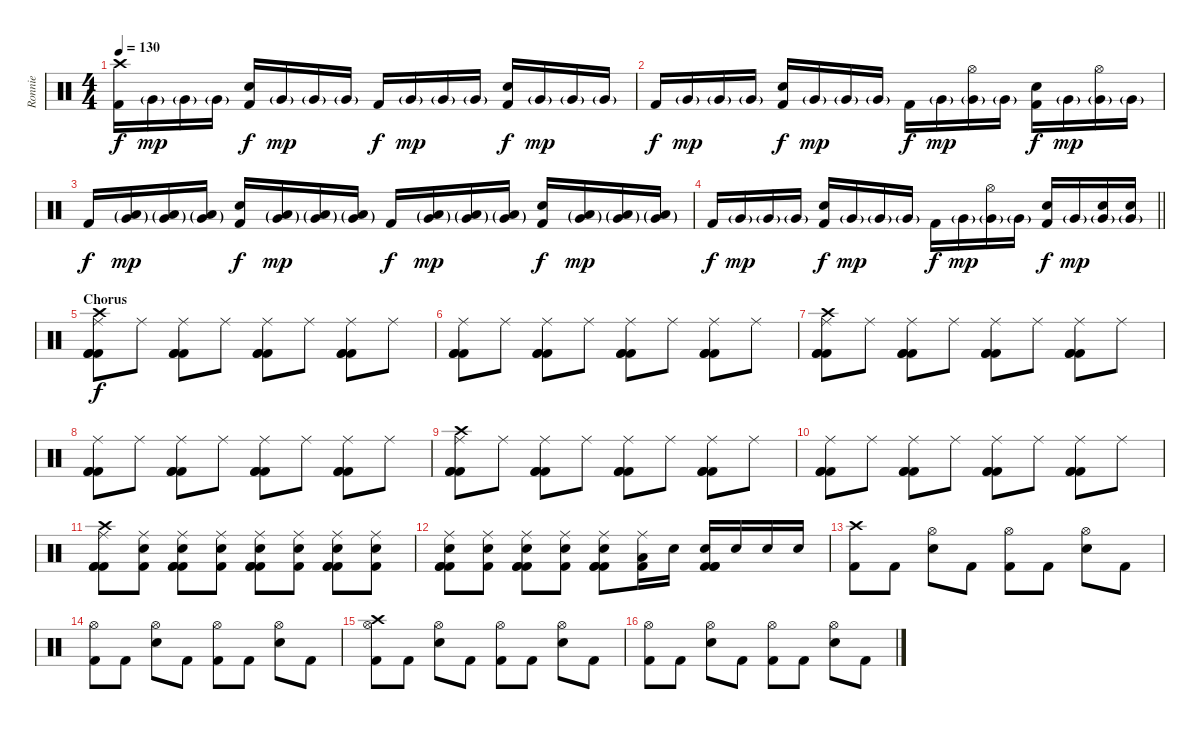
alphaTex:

\track ("Ronnie" "Ronnie") {instrument percussion}
\staff {score}
\articulation defaults
\ts (4 4)
\tempo 130
\clef neutral
\ks c
("Kick (hit) 2" "Crash high (hit)").16{dy f} "Very Low Tom (hit)"{g}.16{dy mp} "Very Low Tom (hit)"{g}.16 "Very Low Tom (hit)"{g}.16 ("Electric Snare (hit)" "Kick (hit) 2").16{dy f} "Very Low Tom (hit)"{g}.16{dy mp} "Very Low Tom (hit)"{g}.16 "Very Low Tom (hit)"{g}.16 "Kick (hit) 2".16{dy f} "Very Low Tom (hit)"{g}.16{dy mp} "Very Low Tom (hit)"{g}.16 "Very Low Tom (hit)"{g}.16 ("Electric Snare (hit)" "Kick (hit) 2").16{dy f} "Very Low Tom (hit)"{g}.16{dy mp} "Very Low Tom (hit)"{g}.16 "Very Low Tom (hit)"{g}.16 |
"Kick (hit) 2".16{dy f} "Very Low Tom (hit)"{g}.16{dy mp} "Very Low Tom (hit)"{g}.16 "Very Low Tom (hit)"{g}.16 ("Electric Snare (hit)" "Kick (hit) 2").16{dy f} "Very Low Tom (hit)"{g}.16{dy mp} "Very Low Tom (hit)"{g}.16 "Very Low Tom (hit)"{g}.16 "Kick (hit) 2".16{dy f} "Very Low Tom (hit)"{g}.16{dy mp} ("Very Low Tom (hit)"{g} "Hi-Hat (open)").16 "Very Low Tom (hit)"{g}.16 ("Electric Snare (hit)" "Kick (hit) 2").16{dy f} "Very Low Tom (hit)"{g}.16{dy mp} ("Very Low Tom (hit)"{g} "Hi-Hat (open)").16 "Very Low Tom (hit)"{g}.16 |
"Kick (hit) 2".16{dy f} ("Very Low Tom (hit)"{g} "Low Tom (hit)"{g}).16{dy mp} ("Very Low Tom (hit)"{g} "Low Tom (hit)"{g}).16 ("Very Low Tom (hit)"{g} "Low Tom (hit)"{g}).16 ("Electric Snare (hit)" "Kick (hit) 2").16{dy f} ("Very Low Tom (hit)"{g} "Low Tom (hit)"{g}).16{dy mp} ("Very Low Tom (hit)"{g} "Low Tom (hit)"{g}).16 ("Very Low Tom (hit)"{g} "Low Tom (hit)"{g}).16 "Kick (hit) 2".16{dy f} ("Very Low Tom (hit)"{g} "Low Tom (hit)"{g}).16{dy mp} ("Very Low Tom (hit)"{g} "Low Tom (hit)"{g}).16 ("Very Low Tom (hit)"{g} "Low Tom (hit)"{g}).16 ("Electric Snare (hit)" "Kick (hit) 2").16{dy f} ("Very Low Tom (hit)"{g} "Low Tom (hit)"{g}).16{dy mp} ("Very Low Tom (hit)"{g} "Low Tom (hit)"{g}).16 ("Very Low Tom (hit)"{g} "Low Tom (hit)"{g}).16 |
\barLineRight lightlight "Kick (hit) 2".16{dy f} "Very Low Tom (hit)"{g}.16{dy mp} "Very Low Tom (hit)"{g}.16 "Very Low Tom (hit)"{g}.16
("Electric Snare (hit)" "Kick (hit) 2").16{dy f} "Very Low Tom (hit)"{g}.16{dy mp} "Very Low Tom (hit)"{g}.16 "Very Low Tom (hit)"{g}.16 "Kick (hit) 2".16{dy f} "Very Low Tom (hit)"{g}.16{dy mp} ("Very Low Tom (hit)"{g} "Hi-Hat (open)").16 "Very Low Tom (hit)"{g}.16 ("Electric Snare (hit)" "Kick (hit) 2").16{dy f} "Very Low Tom (hit)"{g}.16{dy mp} ("Very Low Tom (hit)"{g} "Electric Snare (hit)").16 ("Very Low Tom (hit)"{g} "Electric Snare (hit)").16 |
\section ("" "Chorus")
("Crash high (hit)" "Ride (middle)" "Kick (hit) 2" "Kick (hit) 2" "Kick (hit) 2").8{dy f} "Ride (middle)".8 ("Ride (middle)" "Kick (hit) 2" "Kick (hit) 2" "Kick (hit) 2").8 "Ride (middle)".8 ("Ride (middle)" "Kick (hit) 2" "Kick (hit) 2" "Kick (hit) 2").8 "Ride (middle)".8 ("Ride (middle)" "Kick (hit) 2" "Kick (hit) 2" "Kick (hit) 2").8 "Ride (middle)".8 |
("Ride (middle)" "Kick (hit) 2" "Kick (hit) 2" "Kick (hit) 2").8 "Ride (middle)".8 ("Ride (middle)" "Kick (hit) 2" "Kick (hit) 2" "Kick (hit) 2").8 "Ride (middle)".8 ("Ride (middle)" "Kick (hit) 2" "Kick (hit) 2" "Kick (hit) 2").8 "Ride (middle)".8 ("Ride (middle)" "Kick (hit) 2" "Kick (hit) 2" "Kick (hit) 2").8 "Ride (middle)".8 |
("Crash high (hit)" "Ride (middle)" "Kick (hit) 2" "Kick (hit) 2" "Kick (hit) 2").8 "Ride (middle)".8 ("Ride (middle)" "Kick (hit) 2" "Kick (hit) 2" "Kick (hit) 2").8 "Ride (middle)".8 ("Ride (middle)" "Kick (hit) 2" "Kick (hit) 2" "Kick (hit) 2").8 "Ride (middle)".8 ("Ride (middle)" "Kick (hit) 2" "Kick (hit) 2" "Kick (hit) 2").8 "Ride (middle)".8 |
("Ride (middle)" "Kick (hit) 2" "Kick (hit) 2" "Kick (hit) 2").8 "Ride (middle)".8 ("Ride (middle)" "Kick (hit) 2" "Kick (hit) 2" "Kick (hit) 2").8 "Ride (middle)".8 ("Ride (middle)" "Kick (hit) 2" "Kick (hit) 2" "Kick (hit) 2").8 "Ride (middle)".8 ("Ride (middle)" "Kick (hit) 2" "Kick (hit) 2" "Kick (hit) 2").8 "Ride (middle)".8 |
("Crash high (hit)" "Ride (middle)" "Kick (hit) 2" "Kick (hit) 2" "Kick (hit) 2").8 "Ride (middle)".8 ("Ride (middle)" "Kick (hit) 2" "Kick (hit) 2" "Kick (hit) 2").8 "Ride (middle)".8 ("Ride (middle)" "Kick (hit) 2" "Kick (hit) 2" "Kick (hit) 2").8 "Ride (middle)".8 ("Ride (middle)" "Kick (hit) 2" "Kick (hit) 2" "Kick (hit) 2").8 "Ride (middle)".8 |
("Ride (middle)" "Kick (hit) 2" "Kick (hit) 2" "Kick (hit) 2").8 "Ride (middle)".8 ("Ride (middle)" "Kick (hit) 2" "Kick (hit) 2" "Kick (hit) 2").8 "Ride (middle)".8 ("Ride (middle)" "Kick (hit) 2" "Kick (hit) 2" "Kick (hit) 2").8 "Ride (middle)".8 ("Ride (middle)" "Kick (hit) 2" "Kick (hit) 2" "Kick (hit) 2").8 "Ride (middle)".8 |
("Crash high (hit)" "Ride (middle)" "Kick (hit) 2" "Kick (hit) 2" "Kick (hit) 2").8 ("Electric Snare (hit)" "Ride (middle)" "Kick (hit) 2").8 ("Electric Snare (hit)" "Ride (middle)" "Kick (hit) 2" "Kick (hit) 2" "Kick (hit) 2").8 ("Electric Snare (hit)" "Ride (middle)" "Kick (hit) 2").8 ("Electric Snare (hit)" "Ride (middle)" "Kick (hit) 2" "Kick (hit) 2" "Kick (hit) 2").8 ("Electric Snare (hit)" "Ride (middle)" "Kick (hit) 2").8 ("Electric Snare (hit)" "Ride (middle)" "Kick (hit) 2" "Kick (hit) 2" "Kick (hit) 2").8 ("Electric Snare (hit)" "Ride (middle)" "Kick (hit) 2").8 |
("Electric Snare (hit)" "Ride (middle)" "Kick (hit) 2" "Kick (hit) 2" "Kick (hit) 2").8 ("Electric Snare (hit)" "Ride (middle)" "Kick (hit) 2").8 ("Electric Snare (hit)" "Ride (middle)" "Kick (hit) 2" "Kick (hit) 2" "Kick (hit) 2").8 ("Electric Snare (hit)" "Ride (middle)" "Kick (hit) 2").8 ("Electric Snare (hit)" "Ride (middle)" "Kick (hit) 2" "Kick (hit) 2" "Kick (hit) 2").8 ("Ride (middle)" "Kick (hit) 2" "Low Floor Tom (hit)").16 "Electric Snare (hit)".16 ("Electric Snare (hit)" "Kick (hit) 2" "Kick (hit) 2" "Kick (hit) 2").16 "Electric Snare (hit)".16 "Electric Snare (hit)".16 "Electric Snare (hit)".16 |
("Kick (hit) 2" "Crash high (hit)").8 "Kick (hit) 2".8 ("Electric Snare (hit)" "Hi-Hat (open)").8 "Kick (hit) 2".8 ("Kick (hit) 2" "Hi-Hat (open)").8 "Kick (hit) 2".8 ("Electric Snare (hit)" "Hi-Hat (open)").8 "Kick (hit) 2".8 |
("Kick (hit) 2" "Hi-Hat (open)").8 "Kick (hit) 2".8 ("Electric Snare (hit)" "Hi-Hat (open)").8 "Kick (hit) 2".8 ("Kick (hit) 2" "Hi-Hat (open)").8 "Kick (hit) 2".8 ("Electric Snare (hit)" "Hi-Hat (open)").8 "Kick (hit) 2".8 |
("Crash high (hit)" "Kick (hit) 2" "Hi-Hat (open)").8 "Kick (hit) 2".8 ("Electric Snare (hit)" "Hi-Hat (open)").8 "Kick (hit) 2".8 ("Kick (hit) 2" "Hi-Hat (open)").8 "Kick (hit) 2".8 ("Electric Snare (hit)" "Hi-Hat (open)").8 "Kick (hit) 2".8 |
("Kick (hit) 2" "Hi-Hat (open)").8 "Kick (hit) 2".8 ("Electric Snare (hit)" "Hi-Hat (open)").8 "Kick (hit) 2".8 ("Kick (hit) 2" "Hi-Hat (open)").8 "Kick (hit) 2".8 ("Electric Snare (hit)" "Hi-Hat (open)").8 "Kick (hit) 2".8
